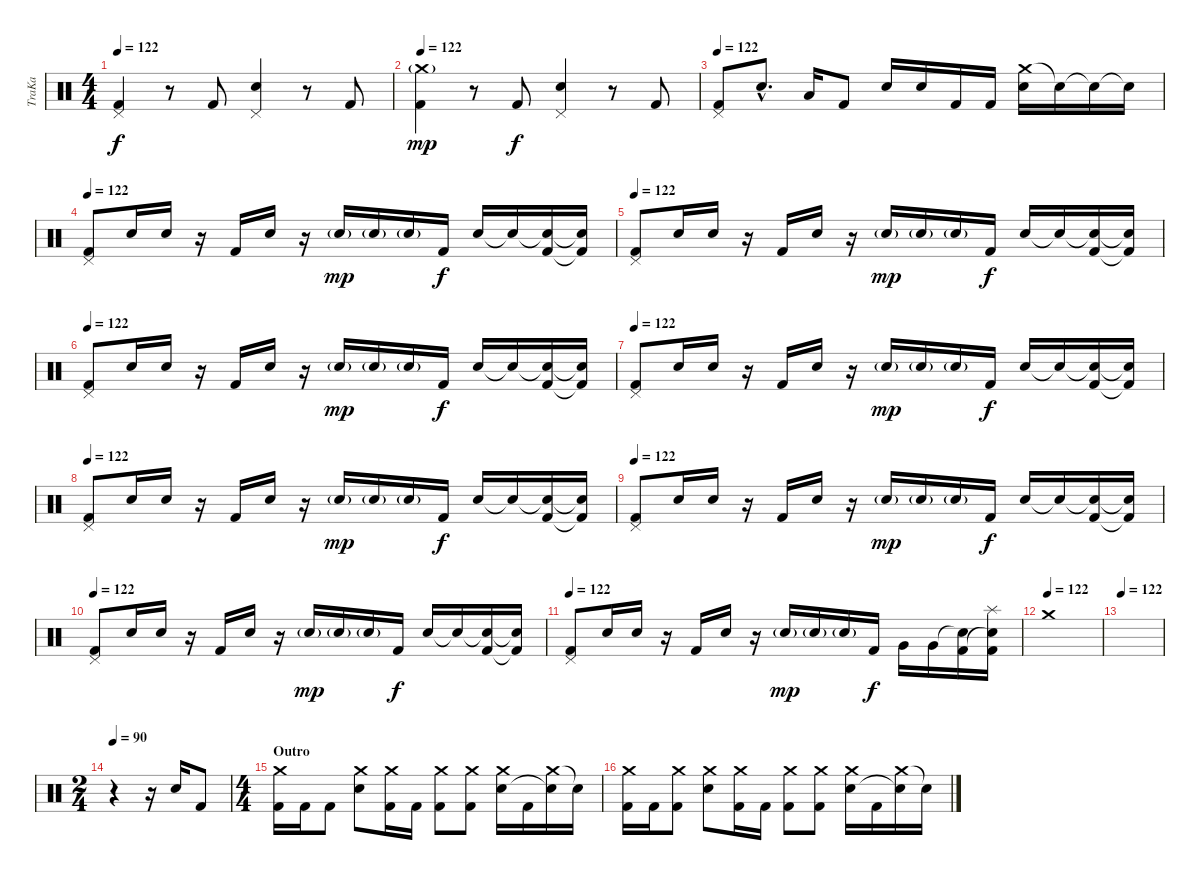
\track ("TraKa" "TraKa") {instrument percussion}
\staff {score}
\articulation defaults
\ts (4 4)
\tempo 125
\tempo 122
\clef neutral
\ks c
("Pedal Hi-Hat (hit)" "Kick (hit) 2").4{dy f} r.8 "Kick (hit) 2".8 ("Pedal Hi-Hat (hit)" "Electric Snare (hit)").4 r.8 "Kick (hit) 2".8 |
\tempo 125
\tempo 122
("Crash medium (hit)"{g} "Kick (hit) 2").4{dy mp} r.8 "Kick (hit) 2".8{dy f} ("Pedal Hi-Hat (hit)" "Electric Snare (hit)").4 r.8 "Kick (hit) 2".8 |
\tempo 122
("Pedal Hi-Hat (hit)" "Kick (hit) 2").8 "Electric Snare (hit)"{hac}.8{d} "Low Tom (hit)".16 "Kick (hit) 2".8 "Electric Snare (hit)".16 "Electric Snare (hit)".16 "Kick (hit) 2".16 "Kick (hit) 2".16 ("Crash medium (hit)" "Electric Snare (hit)").16 "Snare (hit)"{t}.16 "Snare (hit)"{t}.16 "Snare (hit)"{t}.16 |
\tempo 125
\tempo 122
("Pedal Hi-Hat (hit)" "Kick (hit) 2").8 "Electric Snare (hit)".16 "Electric Snare (hit)".16 r.16 "Kick (hit) 2".16 "Electric Snare (hit)".16 r.16 "Electric Snare (hit)"{g}.16{dy mp} "Electric Snare (hit)"{g}.16 "Electric Snare (hit)"{g}.16 "Kick (hit) 2".16{dy f} "Electric Snare (hit)".16 "Snare (hit)"{t}.16 ("Snare (hit)"{t} "Kick (hit) 2").16 ("Snare (hit)"{t} "Kick (hit) 2"{t}).16 |
\tempo 125
\tempo 122
("Pedal Hi-Hat (hit)" "Kick (hit) 2").8 "Electric Snare (hit)".16 "Electric Snare (hit)".16 r.16 "Kick (hit) 2".16 "Electric Snare (hit)".16 r.16 "Electric Snare (hit)"{g}.16{dy mp} "Electric Snare (hit)"{g}.16 "Electric Snare (hit)"{g}.16 "Kick (hit) 2".16{dy f} "Electric Snare (hit)".16 "Snare (hit)"{t}.16 ("Snare (hit)"{t} "Kick (hit) 2").16 ("Snare (hit)"{t} "Kick (hit) 2"{t}).16 |
\tempo 125
\tempo 122
("Pedal Hi-Hat (hit)" "Kick (hit) 2").8 "Electric Snare (hit)".16 "Electric Snare (hit)".16 r.16 "Kick (hit) 2".16 "Electric Snare (hit)".16 r.16 "Electric Snare (hit)"{g}.16{dy mp} "Electric Snare (hit)"{g}.16 "Electric Snare (hit)"{g}.16 "Kick (hit) 2".16{dy f} "Electric Snare (hit)".16 "Snare (hit)"{t}.16 ("Snare (hit)"{t} "Kick (hit) 2").16 ("Snare (hit)"{t} "Kick (hit) 2"{t}).16 |
\tempo 122
("Pedal Hi-Hat (hit)" "Kick (hit) 2").8 "Electric Snare (hit)".16 "Electric Snare (hit)".16 r.16 "Kick (hit) 2".16 "Electric Snare (hit)".16 r.16 "Electric Snare (hit)"{g}.16{dy mp} "Electric Snare (hit)"{g}.16 "Electric Snare (hit)"{g}.16 "Kick (hit) 2".16{dy f} "Electric Snare (hit)".16 "Snare (hit)"{t}.16 ("Snare (hit)"{t} "Kick (hit) 2").16 ("Snare (hit)"{t} "Kick (hit) 2"{t}).16 |
\tempo 125
\tempo 122
("Pedal Hi-Hat (hit)" "Kick (hit) 2").8 "Electric Snare (hit)".16 "Electric Snare (hit)".16 r.16 "Kick (hit) 2".16 "Electric Snare (hit)".16 r.16 "Electric Snare (hit)"{g}.16{dy mp} "Electric Snare (hit)"{g}.16 "Electric Snare (hit)"{g}.16 "Kick (hit) 2".16{dy f} "Electric Snare (hit)".16 "Snare (hit)"{t}.16 ("Snare (hit)"{t} "Kick (hit) 2").16 ("Snare (hit)"{t} "Kick (hit) 2"{t}).16 |
\tempo 125
\tempo 122
("Pedal Hi-Hat (hit)" "Kick (hit) 2").8 "Electric Snare (hit)".16 "Electric Snare (hit)".16 r.16 "Kick (hit) 2".16 "Electric Snare (hit)".16 r.16 "Electric Snare (hit)"{g}.16{dy mp} "Electric Snare (hit)"{g}.16 "Electric Snare (hit)"{g}.16 "Kick (hit) 2".16{dy f} "Electric Snare (hit)".16 "Snare (hit)"{t}.16 ("Snare (hit)"{t} "Kick (hit) 2").16 ("Snare (hit)"{t} "Kick (hit) 2"{t}).16 |
\tempo 125
\tempo 122
("Pedal Hi-Hat (hit)" "Kick (hit) 2").8 "Electric Snare (hit)".16 "Electric Snare (hit)".16 r.16 "Kick (hit) 2".16 "Electric Snare (hit)".16 r.16 "Electric Snare (hit)"{g}.16{dy mp} "Electric Snare (hit)"{g}.16 "Electric Snare (hit)"{g}.16 "Kick (hit) 2".16{dy f} "Electric Snare (hit)".16 "Snare (hit)"{t}.16 ("Snare (hit)"{t} "Kick (hit) 2").16 ("Snare (hit)"{t} "Kick (hit) 2"{t}).16 |
\tempo 122
("Pedal Hi-Hat (hit)" "Kick (hit) 2").8 "Electric Snare (hit)".16 "Electric Snare (hit)".16 r.16 "Kick (hit) 2".16 "Electric Snare (hit)".16 r.16 "Electric Snare (hit)"{g}.16{dy mp} "Electric Snare (hit)"{g}.16 "Electric Snare (hit)"{g}.16 "Kick (hit) 2".16{dy f} "Very Low Tom (hit)".16 "Very Low Tom (hit)".16 ("Snare (hit)"{t} "Kick (hit) 2").16 ("Splash (hit)" "Snare (hit)"{t} "Kick (hit) 2").16 |
\tempo (122)
"Crash medium (hit)".1 |
\tempo 122
|
\ts (2 4)
\tempo 90
r.4 r.16 "Electric Snare (hit)".16 "Kick (hit) 2".8 |
\ts (4 4)
\section ("" "Outro")
("Crash medium (hit)" "Kick (hit) 2").16 "Kick (hit) 2".16 "Kick (hit) 2".8 ("Crash medium (hit)" "Electric Snare (hit)").8 ("Crash medium (hit)" "Kick (hit) 2").16 "Kick (hit) 2".16 ("Crash medium (hit)" "Kick (hit) 2").8 ("Crash medium (hit)" "Kick (hit) 2").8 ("Crash medium (hit)" "Electric Snare (hit)").16 "Kick (hit) 2".16 ("Crash medium (hit)" "Snare (hit)"{t}).16 "Snare (hit)"{t}.16 |
("Crash medium (hit)" "Kick (hit) 2").16 "Kick (hit) 2".16 ("Crash medium (hit)" "Kick (hit) 2").8 ("Crash medium (hit)" "Electric Snare (hit)").8 ("Crash medium (hit)" "Kick (hit) 2").16 "Kick (hit) 2".16 ("Crash medium (hit)" "Kick (hit) 2").8 ("Crash medium (hit)" "Kick (hit) 2").8 ("Crash medium (hit)" "Electric Snare (hit)").16 "Kick (hit) 2".16 ("Crash medium (hit)" "Snare (hit)"{t}).16 "Snare (hit)"{t}.16
